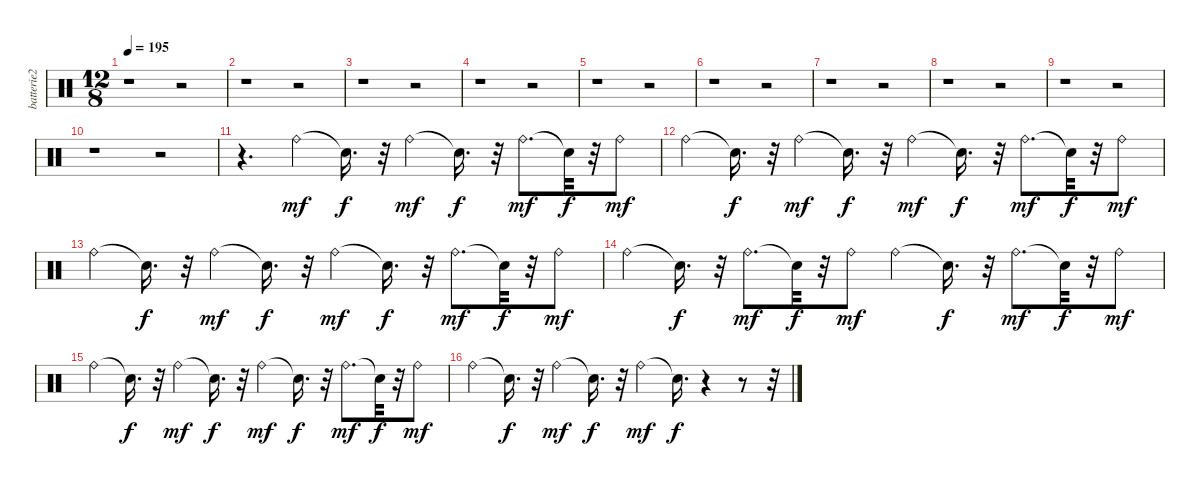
\track ("batterie2" "batterie2") {instrument percussion}
\staff {score}
\articulation defaults
\ts (12 8)
\tempo 195
\clef neutral
\ks c
r.1{dy mf} r.2 |
r.1 r.2 |
r.1 r.2 |
r.1 r.2 |
r.1 r.2 |
r.1 r.2 |
r.1 r.2 |
r.1 r.2 |
r.1 r.2 |
r.1 r.2 |
r.4{d} "Ride (bell)".4 "Snare (hit)"{t}.16{d dy f} r.32 "Ride (bell)".4{dy mf} "Snare (hit)"{t}.16{d dy f} r.32 "Ride (bell)".8{d dy mf} "Snare (hit)"{t}.32{dy f} r.32 "Ride (bell)".8{dy mf} |
"Ride (bell)".4 "Snare (hit)"{t}.16{d dy f} r.32 "Ride (bell)".4{dy mf} "Snare (hit)"{t}.16{d dy f} r.32 "Ride (bell)".4{dy mf} "Snare (hit)"{t}.16{d dy f} r.32 "Ride (bell)".8{d dy mf} "Snare (hit)"{t}.32{dy f} r.32 "Ride (bell)".8{dy mf} |
"Ride (bell)".4 "Snare (hit)"{t}.16{d dy f} r.32 "Ride (bell)".4{dy mf} "Snare (hit)"{t}.16{d dy f} r.32 "Ride (bell)".4{dy mf} "Snare (hit)"{t}.16{d dy f} r.32 "Ride (bell)".8{d dy mf} "Snare (hit)"{t}.32{dy f} r.32 "Ride (bell)".8{dy mf} |
"Ride (bell)".4 "Snare (hit)"{t}.16{d dy f} r.32 "Ride (bell)".8{d dy mf} "Snare (hit)"{t}.32{dy f} r.32 "Ride (bell)".8{dy mf} "Ride (bell)".4 "Snare (hit)"{t}.16{d dy f} r.32 "Ride (bell)".8{d dy mf} "Snare (hit)"{t}.32{dy f} r.32 "Ride (bell)".8{dy mf} |
"Ride (bell)".4 "Snare (hit)"{t}.16{d dy f} r.32 "Ride (bell)".4{dy mf} "Snare (hit)"{t}.16{d dy f} r.32 "Ride (bell)".4{dy mf} "Snare (hit)"{t}.16{d dy f} r.32 "Ride (bell)".8{d dy mf} "Snare (hit)"{t}.32{dy f} r.32 "Ride (bell)".8{dy mf} |
"Ride (bell)".4 "Snare (hit)"{t}.16{d dy f} r.32 "Ride (bell)".4{dy mf} "Snare (hit)"{t}.16{d dy f} r.32 "Ride (bell)".4{dy mf} "Snare (hit)"{t}.16{d dy f} r.4 r.8 r.32
